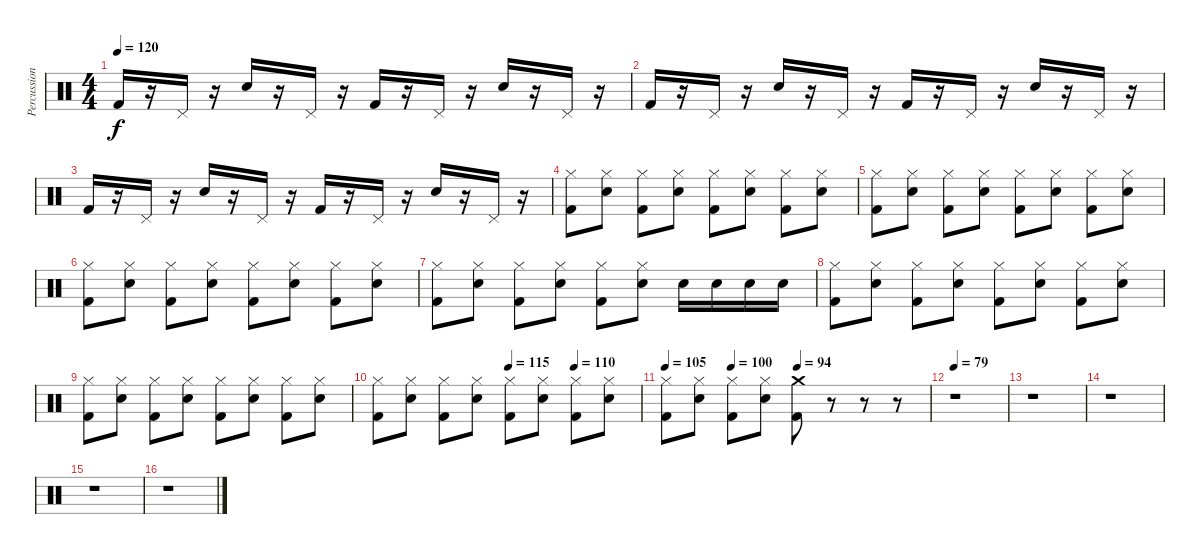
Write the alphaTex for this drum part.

\track ("Percussion" "Percussion") {instrument percussion}
\staff {score}
\articulation defaults
\ts (4 4)
\tempo 120
\clef neutral
\ks c "Kick (hit) 2".16{dy f}
r.16 "Pedal Hi-Hat (hit)".16 r.16 "Electric Snare (hit)".16 r.16 "Pedal Hi-Hat (hit)".16 r.16 "Kick (hit) 2".16 r.16 "Pedal Hi-Hat (hit)".16 r.16 "Electric Snare (hit)".16 r.16 "Pedal Hi-Hat (hit)".16 r.16 |
"Kick (hit) 2".16 r.16 "Pedal Hi-Hat (hit)".16 r.16 "Electric Snare (hit)".16 r.16 "Pedal Hi-Hat (hit)".16 r.16 "Kick (hit) 2".16 r.16 "Pedal Hi-Hat (hit)".16 r.16 "Electric Snare (hit)".16 r.16 "Pedal Hi-Hat (hit)".16 r.16 |
"Kick (hit) 2".16 r.16 "Pedal Hi-Hat (hit)".16 r.16 "Electric Snare (hit)".16 r.16 "Pedal Hi-Hat (hit)".16 r.16 "Kick (hit) 2".16 r.16 "Pedal Hi-Hat (hit)".16 r.16 "Electric Snare (hit)".16 r.16 "Pedal Hi-Hat (hit)".16 r.16 |
("Hi-Hat (closed)" "Kick (hit) 2").8 ("Hi-Hat (closed)" "Electric Snare (hit)").8 ("Hi-Hat (closed)" "Kick (hit) 2").8 ("Hi-Hat (closed)" "Electric Snare (hit)").8 ("Hi-Hat (closed)" "Kick (hit) 2").8 ("Hi-Hat (closed)" "Electric Snare (hit)").8 ("Hi-Hat (closed)" "Kick (hit) 2").8 ("Hi-Hat (closed)" "Electric Snare (hit)").8 |
("Hi-Hat (closed)" "Kick (hit) 2").8 ("Hi-Hat (closed)" "Electric Snare (hit)").8 ("Hi-Hat (closed)" "Kick (hit) 2").8 ("Hi-Hat (closed)" "Electric Snare (hit)").8 ("Hi-Hat (closed)" "Kick (hit) 2").8 ("Hi-Hat (closed)" "Electric Snare (hit)").8 ("Hi-Hat (closed)" "Kick (hit) 2").8 ("Hi-Hat (closed)" "Electric Snare (hit)").8 |
("Hi-Hat (closed)" "Kick (hit) 2").8 ("Hi-Hat (closed)" "Electric Snare (hit)").8 ("Hi-Hat (closed)" "Kick (hit) 2").8 ("Hi-Hat (closed)" "Electric Snare (hit)").8 ("Hi-Hat (closed)" "Kick (hit) 2").8 ("Hi-Hat (closed)" "Electric Snare (hit)").8 ("Hi-Hat (closed)" "Kick (hit) 2").8 ("Hi-Hat (closed)" "Electric Snare (hit)").8 |
("Hi-Hat (closed)" "Kick (hit) 2").8 ("Hi-Hat (closed)" "Electric Snare (hit)").8 ("Hi-Hat (closed)" "Kick (hit) 2").8 ("Hi-Hat (closed)" "Electric Snare (hit)").8 ("Hi-Hat (closed)" "Kick (hit) 2").8 ("Hi-Hat (closed)" "Electric Snare (hit)").8 "Electric Snare (hit)".16 "Electric Snare (hit)".16 "Electric Snare (hit)".16 "Electric Snare (hit)".16 |
("Hi-Hat (closed)" "Kick (hit) 2").8 ("Hi-Hat (closed)" "Electric Snare (hit)").8 ("Hi-Hat (closed)" "Kick (hit) 2").8 ("Hi-Hat (closed)" "Electric Snare (hit)").8 ("Hi-Hat (closed)" "Kick (hit) 2").8 ("Hi-Hat (closed)" "Electric Snare (hit)").8 ("Hi-Hat (closed)" "Kick (hit) 2").8 ("Hi-Hat (closed)" "Electric Snare (hit)").8 |
("Hi-Hat (closed)" "Kick (hit) 2").8 ("Hi-Hat (closed)" "Electric Snare (hit)").8 ("Hi-Hat (closed)" "Kick (hit) 2").8 ("Hi-Hat (closed)" "Electric Snare (hit)").8 ("Hi-Hat (closed)" "Kick (hit) 2").8 ("Hi-Hat (closed)" "Electric Snare (hit)").8 ("Hi-Hat (closed)" "Kick (hit) 2").8 ("Hi-Hat (closed)" "Electric Snare (hit)").8 |
\tempo (115 0.5)
\tempo (110 0.75)
("Hi-Hat (closed)" "Kick (hit) 2").8 ("Hi-Hat (closed)" "Electric Snare (hit)").8 ("Hi-Hat (closed)" "Kick (hit) 2").8 ("Hi-Hat (closed)" "Electric Snare (hit)").8 ("Hi-Hat (closed)" "Kick (hit) 2").8 ("Hi-Hat (closed)" "Electric Snare (hit)").8 ("Hi-Hat (closed)" "Kick (hit) 2").8 ("Hi-Hat (closed)" "Electric Snare (hit)").8 |
\tempo 105
\tempo (100 0.25)
\tempo (94 0.5)
("Hi-Hat (closed)" "Kick (hit) 2").8 ("Hi-Hat (closed)" "Electric Snare (hit)").8 ("Hi-Hat (closed)" "Kick (hit) 2").8 ("Hi-Hat (closed)" "Electric Snare (hit)").8 ("Crash medium (hit)" "Kick (hit) 2").8 r.8 r.8 r.8 |
\tempo 79
r.1 |
r.1 |
r.1 |
r.1 |
r.1
